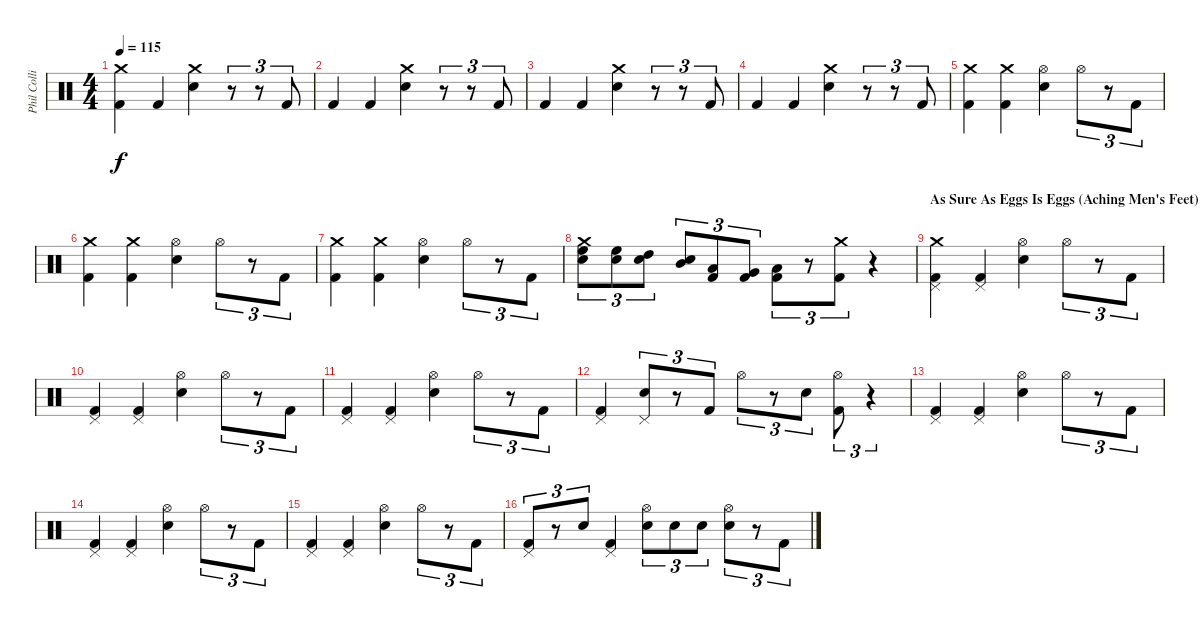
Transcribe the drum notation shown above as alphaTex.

\track ("Phil Collins (drums)" "Phil Colli") {instrument percussion}
\staff {score}
\articulation defaults
\ts (4 4)
\tempo 115
\clef neutral
\ks c
("Crash medium (hit)" "Kick (hit) 2").4{dy f} "Kick (hit) 2".4 ("Crash medium (hit)" "Electric Snare (hit)").4 r.8{tu (3 2)} r.8{tu (3 2)} "Kick (hit) 2".8{tu (3 2)} |
"Kick (hit) 2".4 "Kick (hit) 2".4 ("Crash medium (hit)" "Electric Snare (hit)").4 r.8{tu (3 2)} r.8{tu (3 2)} "Kick (hit) 2".8{tu (3 2)} |
"Kick (hit) 2".4 "Kick (hit) 2".4 ("Crash medium (hit)" "Electric Snare (hit)").4 r.8{tu (3 2)} r.8{tu (3 2)} "Kick (hit) 2".8{tu (3 2)} |
"Kick (hit) 2".4 "Kick (hit) 2".4 ("Crash medium (hit)" "Electric Snare (hit)").4 r.8{tu (3 2)} r.8{tu (3 2)} "Kick (hit) 2".8{tu (3 2)} |
("Crash medium (hit)" "Kick (hit) 2").4 ("Crash medium (hit)" "Kick (hit) 2").4 ("Hi-Hat (open)" "Electric Snare (hit)").4 "Hi-Hat (open)".8{tu (3 2)} r.8{tu (3 2)} "Kick (hit) 2".8{tu (3 2)} |
("Crash medium (hit)" "Kick (hit) 2").4 ("Crash medium (hit)" "Kick (hit) 2").4 ("Hi-Hat (open)" "Electric Snare (hit)").4 "Hi-Hat (open)".8{tu (3 2)} r.8{tu (3 2)} "Kick (hit) 2".8{tu (3 2)} |
("Crash medium (hit)" "Kick (hit) 2").4 ("Crash medium (hit)" "Kick (hit) 2").4 ("Hi-Hat (open)" "Electric Snare (hit)").4 "Hi-Hat (open)".8{tu (3 2)} r.8{tu (3 2)} "Kick (hit) 2".8{tu (3 2)} |
("Crash medium (hit)" "High Floor Tom (hit)" "Electric Snare (hit)").8{tu (3 2)} ("High Floor Tom (hit)" "Electric Snare (hit)").8{tu (3 2)} ("High Tom (hit)" "Electric Snare (hit)").8{tu (3 2)} ("Mid Tom (hit)" "Electric Snare (hit)").8{tu (3 2)} ("Low Tom (hit)" "Kick (hit) 2").8{tu (3 2)} ("Very Low Tom (hit)" "Kick (hit) 2").8{tu (3 2)} ("Low Floor Tom (hit)" "Kick (hit) 2").8{tu (3 2)} r.8{tu (3 2)} ("Crash medium (hit)" "Kick (hit) 2").8{tu (3 2)} r.4 |
\section ("" "As Sure As Eggs Is Eggs (Aching Men's Feet) (20:47)")
("Crash medium (hit)" "Pedal Hi-Hat (hit)" "Kick (hit) 2").4 ("Pedal Hi-Hat (hit)" "Kick (hit) 2").4 ("Hi-Hat (open)" "Electric Snare (hit)").4 "Hi-Hat (open)".8{tu (3 2)} r.8{tu (3 2)} "Kick (hit) 2".8{tu (3 2)} |
("Pedal Hi-Hat (hit)" "Kick (hit) 2").4 ("Pedal Hi-Hat (hit)" "Kick (hit) 2").4 ("Hi-Hat (open)" "Electric Snare (hit)").4 "Hi-Hat (open)".8{tu (3 2)} r.8{tu (3 2)} "Kick (hit) 2".8{tu (3 2)} |
("Pedal Hi-Hat (hit)" "Kick (hit) 2").4 ("Pedal Hi-Hat (hit)" "Kick (hit) 2").4 ("Hi-Hat (open)" "Electric Snare (hit)").4 "Hi-Hat (open)".8{tu (3 2)} r.8{tu (3 2)} "Kick (hit) 2".8{tu (3 2)} |
("Pedal Hi-Hat (hit)" "Kick (hit) 2").4 ("Pedal Hi-Hat (hit)" "Electric Snare (hit)").8{tu (3 2)} r.8{tu (3 2)} "Kick (hit) 2".8{tu (3 2)} "Hi-Hat (open)".8{tu (3 2)} r.8{tu (3 2)} "Electric Snare (hit)".8{tu (3 2)} ("Hi-Hat (open)" "Kick (hit) 2").8{tu (3 2)} r.4{tu (3 2)} |
("Pedal Hi-Hat (hit)" "Kick (hit) 2").4 ("Pedal Hi-Hat (hit)" "Kick (hit) 2").4 ("Hi-Hat (open)" "Electric Snare (hit)").4 "Hi-Hat (open)".8{tu (3 2)} r.8{tu (3 2)} "Kick (hit) 2".8{tu (3 2)} |
("Pedal Hi-Hat (hit)" "Kick (hit) 2").4 ("Pedal Hi-Hat (hit)" "Kick (hit) 2").4 ("Hi-Hat (open)" "Electric Snare (hit)").4 "Hi-Hat (open)".8{tu (3 2)} r.8{tu (3 2)} "Kick (hit) 2".8{tu (3 2)} |
("Pedal Hi-Hat (hit)" "Kick (hit) 2").4 ("Pedal Hi-Hat (hit)" "Kick (hit) 2").4 ("Hi-Hat (open)" "Electric Snare (hit)").4 "Hi-Hat (open)".8{tu (3 2)} r.8{tu (3 2)} "Kick (hit) 2".8{tu (3 2)} |
("Pedal Hi-Hat (hit)" "Kick (hit) 2").8{tu (3 2)} r.8{tu (3 2)} "Electric Snare (hit)".8{tu (3 2)} ("Pedal Hi-Hat (hit)" "Kick (hit) 2").4 ("Hi-Hat (open)" "Electric Snare (hit)").8{tu (3 2)} "Electric Snare (hit)".8{tu (3 2)} "Electric Snare (hit)".8{tu (3 2)} ("Hi-Hat (open)" "Electric Snare (hit)").8{tu (3 2)} r.8{tu (3 2)} "Kick (hit) 2".8{tu (3 2)}
